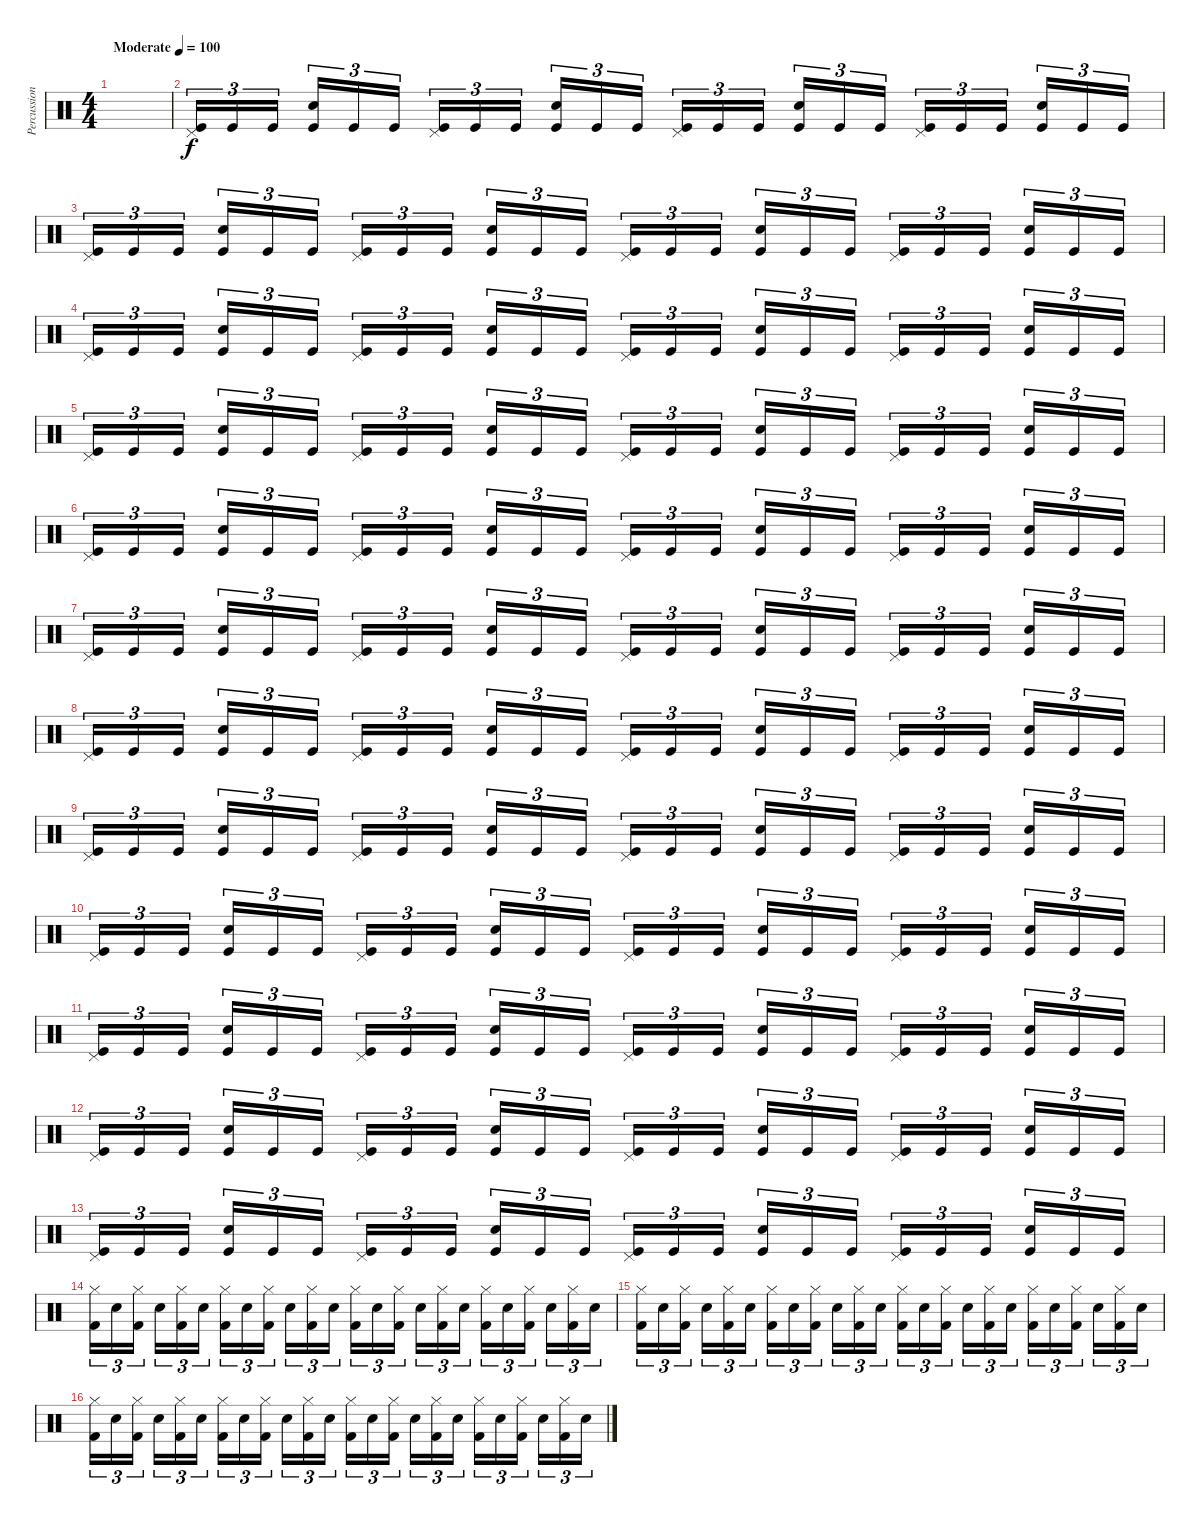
\track ("Percussion" "Percussion") {instrument percussion}
\staff {score}
\articulation defaults
\ts (4 4)
\tempo (100 "Moderate")
\clef neutral
\ks c
|
("Pedal Hi-Hat (hit)" "Kick (hit)").16{tu (3 2)} "Kick (hit)".16{tu (3 2)} "Kick (hit)".16{tu (3 2) beam splitsecondary} ("Snare (hit) 2" "Kick (hit)").16{tu (3 2)} "Kick (hit)".16{tu (3 2)} "Kick (hit)".16{tu (3 2)} ("Pedal Hi-Hat (hit)" "Kick (hit)").16{tu (3 2)} "Kick (hit)".16{tu (3 2)} "Kick (hit)".16{tu (3 2) beam splitsecondary} ("Snare (hit) 2" "Kick (hit)").16{tu (3 2)} "Kick (hit)".16{tu (3 2)} "Kick (hit)".16{tu (3 2)} ("Pedal Hi-Hat (hit)" "Kick (hit)").16{tu (3 2)} "Kick (hit)".16{tu (3 2)} "Kick (hit)".16{tu (3 2) beam splitsecondary} ("Snare (hit) 2" "Kick (hit)").16{tu (3 2)} "Kick (hit)".16{tu (3 2)} "Kick (hit)".16{tu (3 2)} ("Pedal Hi-Hat (hit)" "Kick (hit)").16{tu (3 2)} "Kick (hit)".16{tu (3 2)} "Kick (hit)".16{tu (3 2) beam splitsecondary} ("Snare (hit) 2" "Kick (hit)").16{tu (3 2)} "Kick (hit)".16{tu (3 2)} "Kick (hit)".16{tu (3 2)} |
("Pedal Hi-Hat (hit)" "Kick (hit)").16{tu (3 2)} "Kick (hit)".16{tu (3 2)} "Kick (hit)".16{tu (3 2) beam splitsecondary} ("Snare (hit) 2" "Kick (hit)").16{tu (3 2)} "Kick (hit)".16{tu (3 2)} "Kick (hit)".16{tu (3 2)} ("Pedal Hi-Hat (hit)" "Kick (hit)").16{tu (3 2)} "Kick (hit)".16{tu (3 2)} "Kick (hit)".16{tu (3 2) beam splitsecondary} ("Snare (hit) 2" "Kick (hit)").16{tu (3 2)} "Kick (hit)".16{tu (3 2)} "Kick (hit)".16{tu (3 2)} ("Pedal Hi-Hat (hit)" "Kick (hit)").16{tu (3 2)} "Kick (hit)".16{tu (3 2)} "Kick (hit)".16{tu (3 2) beam splitsecondary} ("Snare (hit) 2" "Kick (hit)").16{tu (3 2)} "Kick (hit)".16{tu (3 2)} "Kick (hit)".16{tu (3 2)} ("Pedal Hi-Hat (hit)" "Kick (hit)").16{tu (3 2)} "Kick (hit)".16{tu (3 2)} "Kick (hit)".16{tu (3 2) beam splitsecondary} ("Snare (hit) 2" "Kick (hit)").16{tu (3 2)} "Kick (hit)".16{tu (3 2)} "Kick (hit)".16{tu (3 2)} |
("Pedal Hi-Hat (hit)" "Kick (hit)").16{tu (3 2)} "Kick (hit)".16{tu (3 2)} "Kick (hit)".16{tu (3 2) beam splitsecondary} ("Snare (hit) 2" "Kick (hit)").16{tu (3 2)} "Kick (hit)".16{tu (3 2)} "Kick (hit)".16{tu (3 2)} ("Pedal Hi-Hat (hit)" "Kick (hit)").16{tu (3 2)} "Kick (hit)".16{tu (3 2)} "Kick (hit)".16{tu (3 2) beam splitsecondary} ("Snare (hit) 2" "Kick (hit)").16{tu (3 2)} "Kick (hit)".16{tu (3 2)} "Kick (hit)".16{tu (3 2)} ("Pedal Hi-Hat (hit)" "Kick (hit)").16{tu (3 2)} "Kick (hit)".16{tu (3 2)} "Kick (hit)".16{tu (3 2) beam splitsecondary} ("Snare (hit) 2" "Kick (hit)").16{tu (3 2)} "Kick (hit)".16{tu (3 2)} "Kick (hit)".16{tu (3 2)} ("Pedal Hi-Hat (hit)" "Kick (hit)").16{tu (3 2)} "Kick (hit)".16{tu (3 2)} "Kick (hit)".16{tu (3 2) beam splitsecondary} ("Snare (hit) 2" "Kick (hit)").16{tu (3 2)} "Kick (hit)".16{tu (3 2)} "Kick (hit)".16{tu (3 2)} |
("Pedal Hi-Hat (hit)" "Kick (hit)").16{tu (3 2)} "Kick (hit)".16{tu (3 2)} "Kick (hit)".16{tu (3 2) beam splitsecondary} ("Snare (hit) 2" "Kick (hit)").16{tu (3 2)} "Kick (hit)".16{tu (3 2)} "Kick (hit)".16{tu (3 2)} ("Pedal Hi-Hat (hit)" "Kick (hit)").16{tu (3 2)} "Kick (hit)".16{tu (3 2)} "Kick (hit)".16{tu (3 2) beam splitsecondary} ("Snare (hit) 2" "Kick (hit)").16{tu (3 2)} "Kick (hit)".16{tu (3 2)} "Kick (hit)".16{tu (3 2)} ("Pedal Hi-Hat (hit)" "Kick (hit)").16{tu (3 2)} "Kick (hit)".16{tu (3 2)} "Kick (hit)".16{tu (3 2) beam splitsecondary} ("Snare (hit) 2" "Kick (hit)").16{tu (3 2)} "Kick (hit)".16{tu (3 2)} "Kick (hit)".16{tu (3 2)} ("Pedal Hi-Hat (hit)" "Kick (hit)").16{tu (3 2)} "Kick (hit)".16{tu (3 2)} "Kick (hit)".16{tu (3 2) beam splitsecondary} ("Snare (hit) 2" "Kick (hit)").16{tu (3 2)} "Kick (hit)".16{tu (3 2)} "Kick (hit)".16{tu (3 2)} |
("Pedal Hi-Hat (hit)" "Kick (hit)").16{tu (3 2)} "Kick (hit)".16{tu (3 2)} "Kick (hit)".16{tu (3 2) beam splitsecondary} ("Snare (hit) 2" "Kick (hit)").16{tu (3 2)} "Kick (hit)".16{tu (3 2)} "Kick (hit)".16{tu (3 2)} ("Pedal Hi-Hat (hit)" "Kick (hit)").16{tu (3 2)} "Kick (hit)".16{tu (3 2)} "Kick (hit)".16{tu (3 2) beam splitsecondary} ("Snare (hit) 2" "Kick (hit)").16{tu (3 2)} "Kick (hit)".16{tu (3 2)} "Kick (hit)".16{tu (3 2)} ("Pedal Hi-Hat (hit)" "Kick (hit)").16{tu (3 2)} "Kick (hit)".16{tu (3 2)} "Kick (hit)".16{tu (3 2) beam splitsecondary} ("Snare (hit) 2" "Kick (hit)").16{tu (3 2)} "Kick (hit)".16{tu (3 2)} "Kick (hit)".16{tu (3 2)} ("Pedal Hi-Hat (hit)" "Kick (hit)").16{tu (3 2)} "Kick (hit)".16{tu (3 2)} "Kick (hit)".16{tu (3 2) beam splitsecondary} ("Snare (hit) 2" "Kick (hit)").16{tu (3 2)} "Kick (hit)".16{tu (3 2)} "Kick (hit)".16{tu (3 2)} |
("Pedal Hi-Hat (hit)" "Kick (hit)").16{tu (3 2)} "Kick (hit)".16{tu (3 2)} "Kick (hit)".16{tu (3 2) beam splitsecondary} ("Snare (hit) 2" "Kick (hit)").16{tu (3 2)} "Kick (hit)".16{tu (3 2)} "Kick (hit)".16{tu (3 2)} ("Pedal Hi-Hat (hit)" "Kick (hit)").16{tu (3 2)} "Kick (hit)".16{tu (3 2)} "Kick (hit)".16{tu (3 2) beam splitsecondary} ("Snare (hit) 2" "Kick (hit)").16{tu (3 2)} "Kick (hit)".16{tu (3 2)} "Kick (hit)".16{tu (3 2)} ("Pedal Hi-Hat (hit)" "Kick (hit)").16{tu (3 2)} "Kick (hit)".16{tu (3 2)} "Kick (hit)".16{tu (3 2) beam splitsecondary} ("Snare (hit) 2" "Kick (hit)").16{tu (3 2)} "Kick (hit)".16{tu (3 2)} "Kick (hit)".16{tu (3 2)} ("Pedal Hi-Hat (hit)" "Kick (hit)").16{tu (3 2)} "Kick (hit)".16{tu (3 2)} "Kick (hit)".16{tu (3 2) beam splitsecondary} ("Snare (hit) 2" "Kick (hit)").16{tu (3 2)} "Kick (hit)".16{tu (3 2)} "Kick (hit)".16{tu (3 2)} |
("Pedal Hi-Hat (hit)" "Kick (hit)").16{tu (3 2)} "Kick (hit)".16{tu (3 2)} "Kick (hit)".16{tu (3 2) beam splitsecondary} ("Snare (hit) 2" "Kick (hit)").16{tu (3 2)} "Kick (hit)".16{tu (3 2)} "Kick (hit)".16{tu (3 2)} ("Pedal Hi-Hat (hit)" "Kick (hit)").16{tu (3 2)} "Kick (hit)".16{tu (3 2)} "Kick (hit)".16{tu (3 2) beam splitsecondary} ("Snare (hit) 2" "Kick (hit)").16{tu (3 2)} "Kick (hit)".16{tu (3 2)} "Kick (hit)".16{tu (3 2)} ("Pedal Hi-Hat (hit)" "Kick (hit)").16{tu (3 2)} "Kick (hit)".16{tu (3 2)} "Kick (hit)".16{tu (3 2) beam splitsecondary} ("Snare (hit) 2" "Kick (hit)").16{tu (3 2)} "Kick (hit)".16{tu (3 2)} "Kick (hit)".16{tu (3 2)} ("Pedal Hi-Hat (hit)" "Kick (hit)").16{tu (3 2)} "Kick (hit)".16{tu (3 2)} "Kick (hit)".16{tu (3 2) beam splitsecondary} ("Snare (hit) 2" "Kick (hit)").16{tu (3 2)} "Kick (hit)".16{tu (3 2)} "Kick (hit)".16{tu (3 2)} |
("Pedal Hi-Hat (hit)" "Kick (hit)").16{tu (3 2)} "Kick (hit)".16{tu (3 2)} "Kick (hit)".16{tu (3 2) beam splitsecondary} ("Snare (hit) 2" "Kick (hit)").16{tu (3 2)} "Kick (hit)".16{tu (3 2)} "Kick (hit)".16{tu (3 2)} ("Pedal Hi-Hat (hit)" "Kick (hit)").16{tu (3 2)} "Kick (hit)".16{tu (3 2)} "Kick (hit)".16{tu (3 2) beam splitsecondary} ("Snare (hit) 2" "Kick (hit)").16{tu (3 2)} "Kick (hit)".16{tu (3 2)} "Kick (hit)".16{tu (3 2)} ("Pedal Hi-Hat (hit)" "Kick (hit)").16{tu (3 2)} "Kick (hit)".16{tu (3 2)} "Kick (hit)".16{tu (3 2) beam splitsecondary} ("Snare (hit) 2" "Kick (hit)").16{tu (3 2)} "Kick (hit)".16{tu (3 2)} "Kick (hit)".16{tu (3 2)} ("Pedal Hi-Hat (hit)" "Kick (hit)").16{tu (3 2)} "Kick (hit)".16{tu (3 2)} "Kick (hit)".16{tu (3 2) beam splitsecondary} ("Snare (hit) 2" "Kick (hit)").16{tu (3 2)} "Kick (hit)".16{tu (3 2)} "Kick (hit)".16{tu (3 2)} |
("Pedal Hi-Hat (hit)" "Kick (hit)").16{tu (3 2)} "Kick (hit)".16{tu (3 2)} "Kick (hit)".16{tu (3 2) beam splitsecondary} ("Snare (hit) 2" "Kick (hit)").16{tu (3 2)} "Kick (hit)".16{tu (3 2)} "Kick (hit)".16{tu (3 2)} ("Pedal Hi-Hat (hit)" "Kick (hit)").16{tu (3 2)} "Kick (hit)".16{tu (3 2)} "Kick (hit)".16{tu (3 2) beam splitsecondary} ("Snare (hit) 2" "Kick (hit)").16{tu (3 2)} "Kick (hit)".16{tu (3 2)} "Kick (hit)".16{tu (3 2)} ("Pedal Hi-Hat (hit)" "Kick (hit)").16{tu (3 2)} "Kick (hit)".16{tu (3 2)} "Kick (hit)".16{tu (3 2) beam splitsecondary} ("Snare (hit) 2" "Kick (hit)").16{tu (3 2)} "Kick (hit)".16{tu (3 2)} "Kick (hit)".16{tu (3 2)} ("Pedal Hi-Hat (hit)" "Kick (hit)").16{tu (3 2)} "Kick (hit)".16{tu (3 2)} "Kick (hit)".16{tu (3 2) beam splitsecondary} ("Snare (hit) 2" "Kick (hit)").16{tu (3 2)} "Kick (hit)".16{tu (3 2)} "Kick (hit)".16{tu (3 2)} |
("Pedal Hi-Hat (hit)" "Kick (hit)").16{tu (3 2)} "Kick (hit)".16{tu (3 2)} "Kick (hit)".16{tu (3 2) beam splitsecondary} ("Snare (hit) 2" "Kick (hit)").16{tu (3 2)} "Kick (hit)".16{tu (3 2)} "Kick (hit)".16{tu (3 2)} ("Pedal Hi-Hat (hit)" "Kick (hit)").16{tu (3 2)} "Kick (hit)".16{tu (3 2)} "Kick (hit)".16{tu (3 2) beam splitsecondary} ("Snare (hit) 2" "Kick (hit)").16{tu (3 2)} "Kick (hit)".16{tu (3 2)} "Kick (hit)".16{tu (3 2)} ("Pedal Hi-Hat (hit)" "Kick (hit)").16{tu (3 2)} "Kick (hit)".16{tu (3 2)} "Kick (hit)".16{tu (3 2) beam splitsecondary} ("Snare (hit) 2" "Kick (hit)").16{tu (3 2)} "Kick (hit)".16{tu (3 2)} "Kick (hit)".16{tu (3 2)} ("Pedal Hi-Hat (hit)" "Kick (hit)").16{tu (3 2)} "Kick (hit)".16{tu (3 2)} "Kick (hit)".16{tu (3 2) beam splitsecondary} ("Snare (hit) 2" "Kick (hit)").16{tu (3 2)} "Kick (hit)".16{tu (3 2)} "Kick (hit)".16{tu (3 2)} |
("Pedal Hi-Hat (hit)" "Kick (hit)").16{tu (3 2)} "Kick (hit)".16{tu (3 2)} "Kick (hit)".16{tu (3 2) beam splitsecondary} ("Snare (hit) 2" "Kick (hit)").16{tu (3 2)} "Kick (hit)".16{tu (3 2)} "Kick (hit)".16{tu (3 2)} ("Pedal Hi-Hat (hit)" "Kick (hit)").16{tu (3 2)} "Kick (hit)".16{tu (3 2)} "Kick (hit)".16{tu (3 2) beam splitsecondary} ("Snare (hit) 2" "Kick (hit)").16{tu (3 2)} "Kick (hit)".16{tu (3 2)} "Kick (hit)".16{tu (3 2)} ("Pedal Hi-Hat (hit)" "Kick (hit)").16{tu (3 2)} "Kick (hit)".16{tu (3 2)} "Kick (hit)".16{tu (3 2) beam splitsecondary} ("Snare (hit) 2" "Kick (hit)").16{tu (3 2)} "Kick (hit)".16{tu (3 2)} "Kick (hit)".16{tu (3 2)} ("Pedal Hi-Hat (hit)" "Kick (hit)").16{tu (3 2)} "Kick (hit)".16{tu (3 2)} "Kick (hit)".16{tu (3 2) beam splitsecondary} ("Snare (hit) 2" "Kick (hit)").16{tu (3 2)} "Kick (hit)".16{tu (3 2)} "Kick (hit)".16{tu (3 2)} |
("Pedal Hi-Hat (hit)" "Kick (hit)").16{tu (3 2)} "Kick (hit)".16{tu (3 2)} "Kick (hit)".16{tu (3 2) beam splitsecondary} ("Snare (hit) 2" "Kick (hit)").16{tu (3 2)} "Kick (hit)".16{tu (3 2)} "Kick (hit)".16{tu (3 2)} ("Pedal Hi-Hat (hit)" "Kick (hit)").16{tu (3 2)} "Kick (hit)".16{tu (3 2)} "Kick (hit)".16{tu (3 2) beam splitsecondary} ("Snare (hit) 2" "Kick (hit)").16{tu (3 2)} "Kick (hit)".16{tu (3 2)} "Kick (hit)".16{tu (3 2)} ("Pedal Hi-Hat (hit)" "Kick (hit)").16{tu (3 2)} "Kick (hit)".16{tu (3 2)} "Kick (hit)".16{tu (3 2) beam splitsecondary} ("Snare (hit) 2" "Kick (hit)").16{tu (3 2)} "Kick (hit)".16{tu (3 2)} "Kick (hit)".16{tu (3 2)} ("Pedal Hi-Hat (hit)" "Kick (hit)").16{tu (3 2)} "Kick (hit)".16{tu (3 2)} "Kick (hit)".16{tu (3 2) beam splitsecondary} ("Snare (hit) 2" "Kick (hit)").16{tu (3 2)} "Kick (hit)".16{tu (3 2)} "Kick (hit)".16{tu (3 2)} |
("Hi-Hat (closed)" "Kick (hit) 2").16{tu (3 2)} "Snare (hit) 2".16{tu (3 2)} ("Hi-Hat (closed)" "Kick (hit) 2").16{tu (3 2) beam splitsecondary} "Snare (hit) 2".16{tu (3 2)} ("Hi-Hat (closed)" "Kick (hit) 2").16{tu (3 2)} "Snare (hit) 2".16{tu (3 2)} ("Hi-Hat (closed)" "Kick (hit) 2").16{tu (3 2)} "Snare (hit) 2".16{tu (3 2)} ("Hi-Hat (closed)" "Kick (hit) 2").16{tu (3 2) beam splitsecondary} "Snare (hit) 2".16{tu (3 2)} ("Hi-Hat (closed)" "Kick (hit) 2").16{tu (3 2)} "Snare (hit) 2".16{tu (3 2)} ("Hi-Hat (closed)" "Kick (hit) 2").16{tu (3 2)} "Snare (hit) 2".16{tu (3 2)} ("Hi-Hat (closed)" "Kick (hit) 2").16{tu (3 2) beam splitsecondary} "Snare (hit) 2".16{tu (3 2)} ("Hi-Hat (closed)" "Kick (hit) 2").16{tu (3 2)} "Snare (hit) 2".16{tu (3 2)} ("Hi-Hat (closed)" "Kick (hit) 2").16{tu (3 2)} "Snare (hit) 2".16{tu (3 2)} ("Hi-Hat (closed)" "Kick (hit) 2").16{tu (3 2) beam splitsecondary} "Snare (hit) 2".16{tu (3 2)} ("Hi-Hat (closed)" "Kick (hit) 2").16{tu (3 2)} "Snare (hit) 2".16{tu (3 2)} |
("Hi-Hat (closed)" "Kick (hit) 2").16{tu (3 2)} "Snare (hit) 2".16{tu (3 2)} ("Hi-Hat (closed)" "Kick (hit) 2").16{tu (3 2) beam splitsecondary} "Snare (hit) 2".16{tu (3 2)} ("Hi-Hat (closed)" "Kick (hit) 2").16{tu (3 2)} "Snare (hit) 2".16{tu (3 2)} ("Hi-Hat (closed)" "Kick (hit) 2").16{tu (3 2)} "Snare (hit) 2".16{tu (3 2)} ("Hi-Hat (closed)" "Kick (hit) 2").16{tu (3 2) beam splitsecondary} "Snare (hit) 2".16{tu (3 2)} ("Hi-Hat (closed)" "Kick (hit) 2").16{tu (3 2)} "Snare (hit) 2".16{tu (3 2)} ("Hi-Hat (closed)" "Kick (hit) 2").16{tu (3 2)} "Snare (hit) 2".16{tu (3 2)} ("Hi-Hat (closed)" "Kick (hit) 2").16{tu (3 2) beam splitsecondary} "Snare (hit) 2".16{tu (3 2)} ("Hi-Hat (closed)" "Kick (hit) 2").16{tu (3 2)} "Snare (hit) 2".16{tu (3 2)} ("Hi-Hat (closed)" "Kick (hit) 2").16{tu (3 2)} "Snare (hit) 2".16{tu (3 2)} ("Hi-Hat (closed)" "Kick (hit) 2").16{tu (3 2) beam splitsecondary} "Snare (hit) 2".16{tu (3 2)} ("Hi-Hat (closed)" "Kick (hit) 2").16{tu (3 2)} "Snare (hit) 2".16{tu (3 2)} |
("Hi-Hat (closed)" "Kick (hit) 2").16{tu (3 2)} "Snare (hit) 2".16{tu (3 2)} ("Hi-Hat (closed)" "Kick (hit) 2").16{tu (3 2) beam splitsecondary} "Snare (hit) 2".16{tu (3 2)} ("Hi-Hat (closed)" "Kick (hit) 2").16{tu (3 2)} "Snare (hit) 2".16{tu (3 2)} ("Hi-Hat (closed)" "Kick (hit) 2").16{tu (3 2)} "Snare (hit) 2".16{tu (3 2)} ("Hi-Hat (closed)" "Kick (hit) 2").16{tu (3 2) beam splitsecondary} "Snare (hit) 2".16{tu (3 2)} ("Hi-Hat (closed)" "Kick (hit) 2").16{tu (3 2)} "Snare (hit) 2".16{tu (3 2)} ("Hi-Hat (closed)" "Kick (hit) 2").16{tu (3 2)} "Snare (hit) 2".16{tu (3 2)} ("Hi-Hat (closed)" "Kick (hit) 2").16{tu (3 2) beam splitsecondary} "Snare (hit) 2".16{tu (3 2)} ("Hi-Hat (closed)" "Kick (hit) 2").16{tu (3 2)} "Snare (hit) 2".16{tu (3 2)} ("Hi-Hat (closed)" "Kick (hit) 2").16{tu (3 2)} "Snare (hit) 2".16{tu (3 2)} ("Hi-Hat (closed)" "Kick (hit) 2").16{tu (3 2) beam splitsecondary} "Snare (hit) 2".16{tu (3 2)} ("Hi-Hat (closed)" "Kick (hit) 2").16{tu (3 2)} "Snare (hit) 2".16{tu (3 2)}
